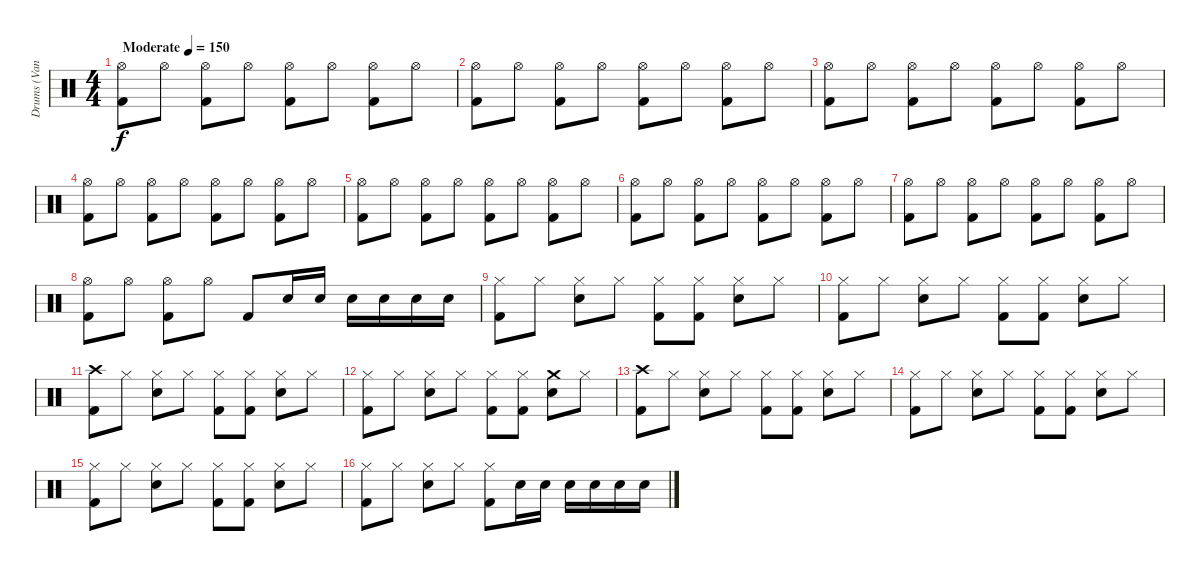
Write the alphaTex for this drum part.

\track ("Drums (Vandel)" "Drums (Van") {instrument percussion}
\staff {score}
\articulation defaults
\ts (4 4)
\tempo (150 "Moderate")
\clef neutral
\ks c
("Hi-Hat (open)" "Kick (hit) 2").8{dy f} "Hi-Hat (open)".8 ("Hi-Hat (open)" "Kick (hit) 2").8 "Hi-Hat (open)".8 ("Hi-Hat (open)" "Kick (hit) 2").8 "Hi-Hat (open)".8 ("Hi-Hat (open)" "Kick (hit) 2").8 "Hi-Hat (open)".8 |
("Hi-Hat (open)" "Kick (hit) 2").8 "Hi-Hat (open)".8 ("Hi-Hat (open)" "Kick (hit) 2").8 "Hi-Hat (open)".8 ("Hi-Hat (open)" "Kick (hit) 2").8 "Hi-Hat (open)".8 ("Hi-Hat (open)" "Kick (hit) 2").8 "Hi-Hat (open)".8 |
("Hi-Hat (open)" "Kick (hit) 2").8 "Hi-Hat (open)".8 ("Hi-Hat (open)" "Kick (hit) 2").8 "Hi-Hat (open)".8 ("Hi-Hat (open)" "Kick (hit) 2").8 "Hi-Hat (open)".8 ("Hi-Hat (open)" "Kick (hit) 2").8 "Hi-Hat (open)".8 |
("Hi-Hat (open)" "Kick (hit) 2").8 "Hi-Hat (open)".8 ("Hi-Hat (open)" "Kick (hit) 2").8 "Hi-Hat (open)".8 ("Hi-Hat (open)" "Kick (hit) 2").8 "Hi-Hat (open)".8 ("Hi-Hat (open)" "Kick (hit) 2").8 "Hi-Hat (open)".8 |
("Hi-Hat (open)" "Kick (hit) 2").8 "Hi-Hat (open)".8 ("Hi-Hat (open)" "Kick (hit) 2").8 "Hi-Hat (open)".8 ("Hi-Hat (open)" "Kick (hit) 2").8 "Hi-Hat (open)".8 ("Hi-Hat (open)" "Kick (hit) 2").8 "Hi-Hat (open)".8 |
("Hi-Hat (open)" "Kick (hit) 2").8 "Hi-Hat (open)".8 ("Hi-Hat (open)" "Kick (hit) 2").8 "Hi-Hat (open)".8 ("Hi-Hat (open)" "Kick (hit) 2").8 "Hi-Hat (open)".8 ("Hi-Hat (open)" "Kick (hit) 2").8 "Hi-Hat (open)".8 |
("Hi-Hat (open)" "Kick (hit) 2").8 "Hi-Hat (open)".8 ("Hi-Hat (open)" "Kick (hit) 2").8 "Hi-Hat (open)".8 ("Hi-Hat (open)" "Kick (hit) 2").8 "Hi-Hat (open)".8 ("Hi-Hat (open)" "Kick (hit) 2").8 "Hi-Hat (open)".8 |
("Hi-Hat (open)" "Kick (hit) 2").8 "Hi-Hat (open)".8 ("Hi-Hat (open)" "Kick (hit) 2").8 "Hi-Hat (open)".8 "Kick (hit) 2".8 "Snare (hit) 2".16 "Snare (hit) 2".16 "Snare (hit) 2".16 "Snare (hit) 2".16 "Snare (hit) 2".16 "Snare (hit) 2".16 |
("Hi-Hat (closed)" "Kick (hit) 2").8 "Hi-Hat (closed)".8 ("Hi-Hat (closed)" "Snare (hit) 2").8 "Hi-Hat (closed)".8 ("Hi-Hat (closed)" "Kick (hit) 2").8 ("Hi-Hat (closed)" "Kick (hit) 2").8 ("Hi-Hat (closed)" "Snare (hit) 2").8 "Hi-Hat (closed)".8 |
("Hi-Hat (closed)" "Kick (hit) 2").8 "Hi-Hat (closed)".8 ("Hi-Hat (closed)" "Snare (hit) 2").8 "Hi-Hat (closed)".8 ("Hi-Hat (closed)" "Kick (hit) 2").8 ("Hi-Hat (closed)" "Kick (hit) 2").8 ("Hi-Hat (closed)" "Snare (hit) 2").8 "Hi-Hat (closed)".8 |
("Crash high (hit)" "Kick (hit) 2").8 "Hi-Hat (closed)".8 ("Hi-Hat (closed)" "Snare (hit) 2").8 "Hi-Hat (closed)".8 ("Hi-Hat (closed)" "Kick (hit) 2").8 ("Hi-Hat (closed)" "Kick (hit) 2").8 ("Hi-Hat (closed)" "Snare (hit) 2").8 "Hi-Hat (closed)".8 |
("Hi-Hat (closed)" "Kick (hit) 2").8 "Hi-Hat (closed)".8 ("Hi-Hat (closed)" "Snare (hit) 2").8 "Hi-Hat (closed)".8 ("Hi-Hat (closed)" "Kick (hit) 2").8 ("Hi-Hat (closed)" "Kick (hit) 2").8 ("Crash medium (hit)" "Snare (hit) 2").8 "Hi-Hat (closed)".8 |
("Crash high (hit)" "Kick (hit) 2").8 "Hi-Hat (closed)".8 ("Hi-Hat (closed)" "Snare (hit) 2").8 "Hi-Hat (closed)".8 ("Hi-Hat (closed)" "Kick (hit) 2").8 ("Hi-Hat (closed)" "Kick (hit) 2").8 ("Hi-Hat (closed)" "Snare (hit) 2").8 "Hi-Hat (closed)".8 |
("Hi-Hat (closed)" "Kick (hit) 2").8 "Hi-Hat (closed)".8 ("Hi-Hat (closed)" "Snare (hit) 2").8 "Hi-Hat (closed)".8 ("Hi-Hat (closed)" "Kick (hit) 2").8 ("Hi-Hat (closed)" "Kick (hit) 2").8 ("Hi-Hat (closed)" "Snare (hit) 2").8 "Hi-Hat (closed)".8 |
("Hi-Hat (closed)" "Kick (hit) 2").8 "Hi-Hat (closed)".8 ("Hi-Hat (closed)" "Snare (hit) 2").8 "Hi-Hat (closed)".8 ("Hi-Hat (closed)" "Kick (hit) 2").8 ("Hi-Hat (closed)" "Kick (hit) 2").8 ("Hi-Hat (closed)" "Snare (hit) 2").8 "Hi-Hat (closed)".8 |
("Hi-Hat (closed)" "Kick (hit) 2").8 "Hi-Hat (closed)".8 ("Hi-Hat (closed)" "Snare (hit) 2").8 "Hi-Hat (closed)".8 ("Hi-Hat (closed)" "Kick (hit) 2").8 "Snare (hit) 2".16 "Snare (hit) 2".16 "Snare (hit) 2".16 "Snare (hit) 2".16 "Snare (hit) 2".16 "Snare (hit) 2".16
